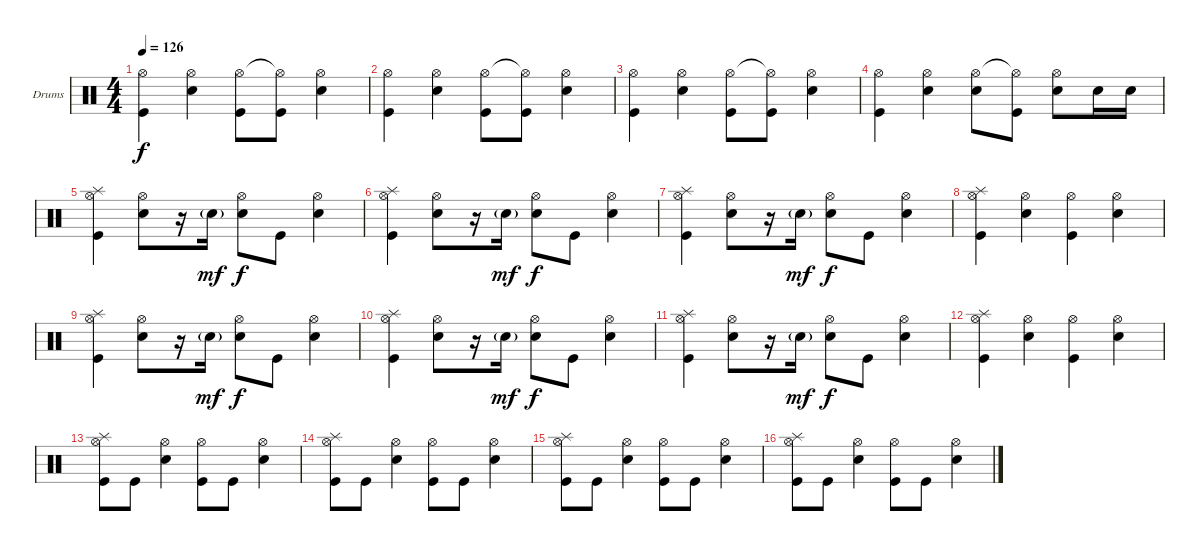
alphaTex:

\bracketExtendMode groupsimilarinstruments
\firstSystemTrackNameOrientation horizontal
\otherSystemsTrackNameOrientation horizontal
\track ("Drumkit" "Drums") {instrument percussion}
\staff {score}
\articulation defaults
\ts (4 4)
\tempo 126
\clef neutral
\ks c
("Kick (hit)" "Hi-Hat (open)").4{dy f} ("Snare (hit) 2" "Hi-Hat (open)").4 ("Kick (hit)" "Hi-Hat (open)").8 ("Kick (hit)" "Hi-Hat (open)"{t}).8 ("Snare (hit) 2" "Hi-Hat (open)").4 |
("Kick (hit)" "Hi-Hat (open)").4 ("Snare (hit) 2" "Hi-Hat (open)").4 ("Kick (hit)" "Hi-Hat (open)").8 ("Kick (hit)" "Hi-Hat (open)"{t}).8 ("Snare (hit) 2" "Hi-Hat (open)").4 |
("Kick (hit)" "Hi-Hat (open)").4 ("Snare (hit) 2" "Hi-Hat (open)").4 ("Kick (hit)" "Hi-Hat (open)").8 ("Kick (hit)" "Hi-Hat (open)"{t}).8 ("Snare (hit) 2" "Hi-Hat (open)").4 |
("Kick (hit)" "Hi-Hat (open)").4 ("Snare (hit) 2" "Hi-Hat (open)").4 ("Snare (hit) 2" "Hi-Hat (open)").8 ("Kick (hit)" "Hi-Hat (open)"{t}).8 ("Snare (hit) 2" "Hi-Hat (open)").8 "Snare (hit) 2".16 "Snare (hit) 2".16 |
("Kick (hit)" "Hi-Hat (open)" "Splash (hit)").4 ("Snare (hit) 2" "Hi-Hat (open)").8 r.16 "Snare (hit) 2"{g}.16{dy mf} ("Snare (hit) 2" "Hi-Hat (open)").8{dy f} "Kick (hit)".8 ("Snare (hit) 2" "Hi-Hat (open)").4 |
("Kick (hit)" "Hi-Hat (open)" "Splash (hit)").4 ("Snare (hit) 2" "Hi-Hat (open)").8 r.16 "Snare (hit) 2"{g}.16{dy mf} ("Snare (hit) 2" "Hi-Hat (open)").8{dy f} "Kick (hit)".8 ("Snare (hit) 2" "Hi-Hat (open)").4 |
("Kick (hit)" "Hi-Hat (open)" "Splash (hit)").4 ("Snare (hit) 2" "Hi-Hat (open)").8 r.16 "Snare (hit) 2"{g}.16{dy mf} ("Snare (hit) 2" "Hi-Hat (open)").8{dy f} "Kick (hit)".8 ("Snare (hit) 2" "Hi-Hat (open)").4 |
("Kick (hit)" "Hi-Hat (open)" "Splash (hit)").4 ("Snare (hit) 2" "Hi-Hat (open)").4 ("Kick (hit)" "Hi-Hat (open)").4 ("Snare (hit) 2" "Hi-Hat (open)").4 |
("Kick (hit)" "Hi-Hat (open)" "Splash (hit)").4 ("Snare (hit) 2" "Hi-Hat (open)").8 r.16 "Snare (hit) 2"{g}.16{dy mf} ("Snare (hit) 2" "Hi-Hat (open)").8{dy f} "Kick (hit)".8 ("Snare (hit) 2" "Hi-Hat (open)").4 |
("Kick (hit)" "Hi-Hat (open)" "Splash (hit)").4 ("Snare (hit) 2" "Hi-Hat (open)").8 r.16 "Snare (hit) 2"{g}.16{dy mf} ("Snare (hit) 2" "Hi-Hat (open)").8{dy f} "Kick (hit)".8 ("Snare (hit) 2" "Hi-Hat (open)").4 |
("Kick (hit)" "Hi-Hat (open)" "Splash (hit)").4 ("Snare (hit) 2" "Hi-Hat (open)").8 r.16 "Snare (hit) 2"{g}.16{dy mf} ("Snare (hit) 2" "Hi-Hat (open)").8{dy f} "Kick (hit)".8 ("Snare (hit) 2" "Hi-Hat (open)").4 |
("Kick (hit)" "Hi-Hat (open)" "Splash (hit)").4 ("Snare (hit) 2" "Hi-Hat (open)").4 ("Kick (hit)" "Hi-Hat (open)").4 ("Snare (hit) 2" "Hi-Hat (open)").4 |
("Kick (hit)" "Hi-Hat (open)" "Splash (hit)").8 "Kick (hit)".8 ("Snare (hit) 2" "Hi-Hat (open)").4 ("Kick (hit)" "Hi-Hat (open)").8 "Kick (hit)".8 ("Snare (hit) 2" "Hi-Hat (open)").4 |
("Kick (hit)" "Hi-Hat (open)" "Splash (hit)").8 "Kick (hit)".8 ("Snare (hit) 2" "Hi-Hat (open)").4 ("Kick (hit)" "Hi-Hat (open)").8 "Kick (hit)".8 ("Snare (hit) 2" "Hi-Hat (open)").4 |
("Kick (hit)" "Hi-Hat (open)" "Splash (hit)").8 "Kick (hit)".8 ("Snare (hit) 2" "Hi-Hat (open)").4 ("Kick (hit)" "Hi-Hat (open)").8 "Kick (hit)".8 ("Snare (hit) 2" "Hi-Hat (open)").4 |
("Kick (hit)" "Hi-Hat (open)" "Splash (hit)").8 "Kick (hit)".8 ("Snare (hit) 2" "Hi-Hat (open)").4 ("Kick (hit)" "Hi-Hat (open)").8 "Kick (hit)".8 ("Snare (hit) 2" "Hi-Hat (open)").4
